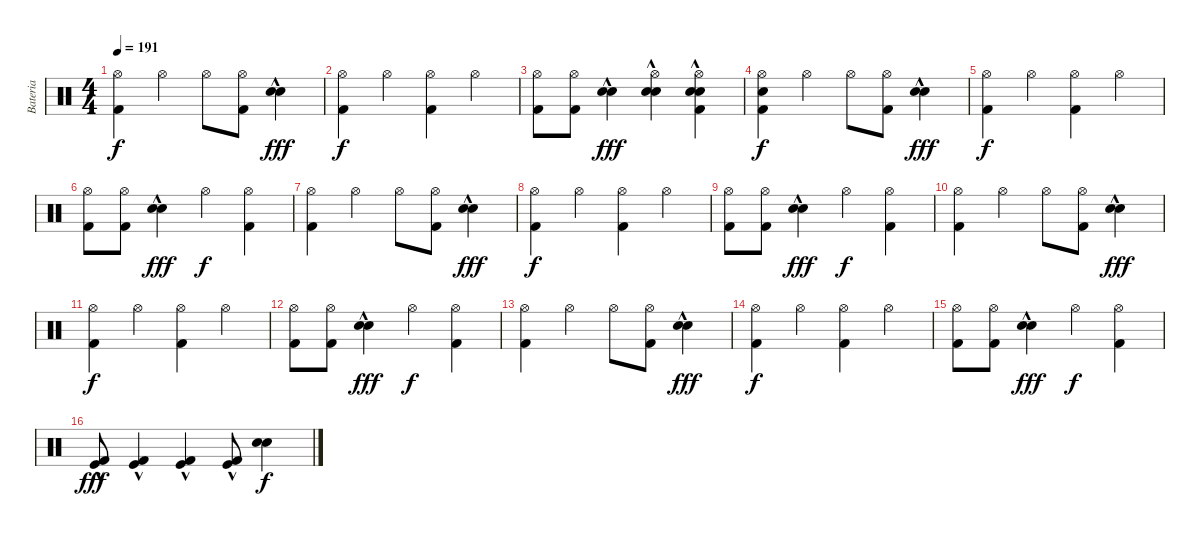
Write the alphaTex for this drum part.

\track ("Bateria" "Bateria") {instrument percussion}
\staff {score}
\articulation defaults
\ts (4 4)
\tempo 191
\clef neutral
\ks c
("Hi-Hat (open)" "Kick (hit) 2").4{dy f} "Hi-Hat (open)".4 "Hi-Hat (open)".8 ("Hi-Hat (open)" "Kick (hit) 2").8 ("Electric Snare (hit)"{hac} "Electric Snare (hit)"{hac}).4{dy fff} |
("Hi-Hat (open)" "Kick (hit) 2").4{dy f} "Hi-Hat (open)".4 ("Hi-Hat (open)" "Kick (hit) 2").4 "Hi-Hat (open)".4 |
("Hi-Hat (open)" "Kick (hit) 2").8 ("Hi-Hat (open)" "Kick (hit) 2").8 ("Electric Snare (hit)"{hac} "Electric Snare (hit)"{hac}).4{dy fff} ("Hi-Hat (open)" "Electric Snare (hit)"{hac} "Electric Snare (hit)"{hac}).4 ("Hi-Hat (open)" "Electric Snare (hit)"{hac} "Electric Snare (hit)"{hac} "Kick (hit) 2").4 |
("Hi-Hat (open)" "Electric Snare (hit)" "Kick (hit) 2").4{dy f} "Hi-Hat (open)".4 "Hi-Hat (open)".8 ("Hi-Hat (open)" "Kick (hit) 2").8 ("Electric Snare (hit)"{hac} "Electric Snare (hit)"{hac}).4{dy fff} |
("Hi-Hat (open)" "Kick (hit) 2").4{dy f} "Hi-Hat (open)".4 ("Hi-Hat (open)" "Kick (hit) 2").4 "Hi-Hat (open)".4 |
("Hi-Hat (open)" "Kick (hit) 2").8 ("Hi-Hat (open)" "Kick (hit) 2").8 ("Electric Snare (hit)"{hac} "Electric Snare (hit)"{hac}).4{dy fff} "Hi-Hat (open)".4{dy f} ("Hi-Hat (open)" "Kick (hit) 2").4 |
("Hi-Hat (open)" "Kick (hit) 2").4 "Hi-Hat (open)".4 "Hi-Hat (open)".8 ("Hi-Hat (open)" "Kick (hit) 2").8 ("Electric Snare (hit)"{hac} "Electric Snare (hit)"{hac}).4{dy fff} |
("Hi-Hat (open)" "Kick (hit) 2").4{dy f} "Hi-Hat (open)".4 ("Hi-Hat (open)" "Kick (hit) 2").4 "Hi-Hat (open)".4 |
("Hi-Hat (open)" "Kick (hit) 2").8 ("Hi-Hat (open)" "Kick (hit) 2").8 ("Electric Snare (hit)"{hac} "Electric Snare (hit)"{hac}).4{dy fff} "Hi-Hat (open)".4{dy f} ("Hi-Hat (open)" "Kick (hit) 2").4 |
("Hi-Hat (open)" "Kick (hit) 2").4 "Hi-Hat (open)".4 "Hi-Hat (open)".8 ("Hi-Hat (open)" "Kick (hit) 2").8 ("Electric Snare (hit)"{hac} "Electric Snare (hit)"{hac}).4{dy fff} |
("Hi-Hat (open)" "Kick (hit) 2").4{dy f} "Hi-Hat (open)".4 ("Hi-Hat (open)" "Kick (hit) 2").4 "Hi-Hat (open)".4 |
("Hi-Hat (open)" "Kick (hit) 2").8 ("Hi-Hat (open)" "Kick (hit) 2").8 ("Electric Snare (hit)"{hac} "Electric Snare (hit)"{hac}).4{dy fff} "Hi-Hat (open)".4{dy f} ("Hi-Hat (open)" "Kick (hit) 2").4 |
("Hi-Hat (open)" "Kick (hit) 2").4 "Hi-Hat (open)".4 "Hi-Hat (open)".8 ("Hi-Hat (open)" "Kick (hit) 2").8 ("Electric Snare (hit)"{hac} "Electric Snare (hit)"{hac}).4{dy fff} |
("Hi-Hat (open)" "Kick (hit) 2").4{dy f} "Hi-Hat (open)".4 ("Hi-Hat (open)" "Kick (hit) 2").4 "Hi-Hat (open)".4 |
("Hi-Hat (open)" "Kick (hit) 2").8 ("Hi-Hat (open)" "Kick (hit) 2").8 ("Electric Snare (hit)"{hac} "Electric Snare (hit)"{hac}).4{dy fff} "Hi-Hat (open)".4{dy f} ("Hi-Hat (open)" "Kick (hit) 2").4 |
("Kick (hit)" "Kick (hit) 2"{hac}).8{dy fff} ("Kick (hit)" "Kick (hit) 2"{hac}).4 ("Kick (hit)" "Kick (hit) 2"{hac}).4 ("Kick (hit)" "Kick (hit) 2"{hac}).8 ("Electric Snare (hit)" "Electric Snare (hit)").4{dy f}
